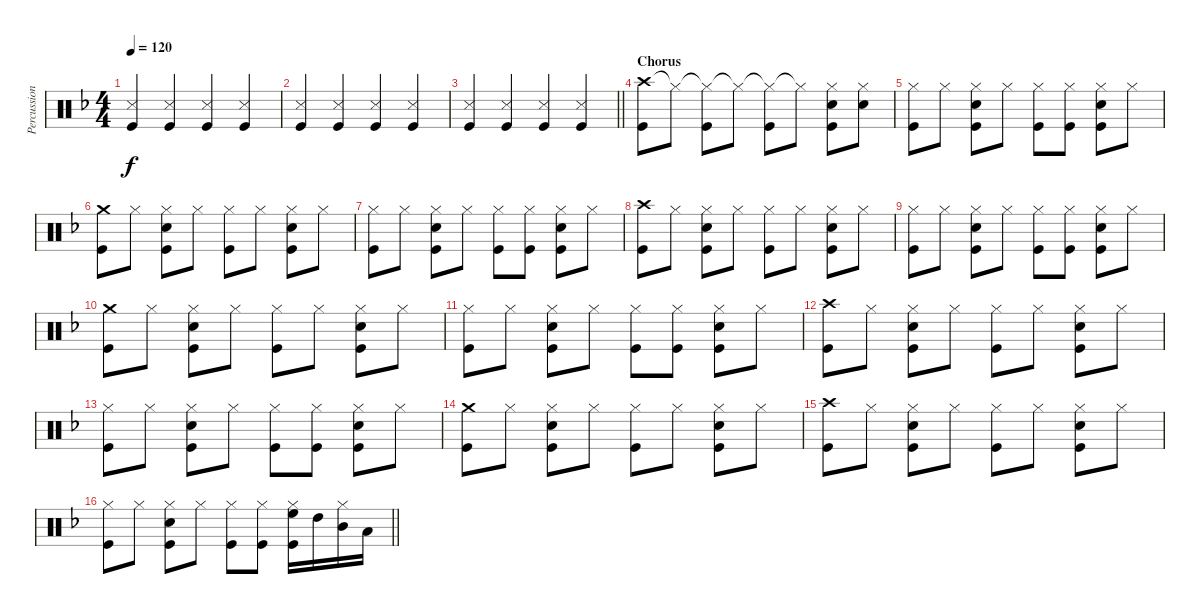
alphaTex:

\track ("Percussion" "Percussion") {instrument percussion}
\staff {score}
\articulation defaults
\ts (4 4)
\tempo 120
\clef neutral
\ks f
("Kick (hit)" "Snare (side stick) 3").4{dy f} ("Kick (hit)" "Snare (side stick) 3").4 ("Kick (hit)" "Snare (side stick) 3").4 ("Kick (hit)" "Snare (side stick) 3").4 |
("Kick (hit)" "Snare (side stick) 3").4 ("Kick (hit)" "Snare (side stick) 3").4 ("Kick (hit)" "Snare (side stick) 3").4 ("Kick (hit)" "Snare (side stick) 3").4 |
\barLineRight lightlight
("Kick (hit)" "Snare (side stick) 3").4 ("Kick (hit)" "Snare (side stick) 3").4 ("Kick (hit)" "Snare (side stick) 3").4 ("Kick (hit)" "Snare (side stick) 3").4 |
\section ("" "Chorus")
("Crash high (hit)" "Kick (hit)").8 "Hi-Hat (closed)"{t}.8 ("Hi-Hat (closed)"{t} "Kick (hit)").8 "Hi-Hat (closed)"{t}.8 ("Hi-Hat (closed)"{t} "Kick (hit)").8 "Hi-Hat (closed)"{t}.8 ("Hi-Hat (closed)" "Kick (hit)" "Electric Snare (hit)").8 ("Hi-Hat (closed)" "Electric Snare (hit)").8 |
("Hi-Hat (closed)" "Kick (hit)").8 "Hi-Hat (closed)".8 ("Hi-Hat (closed)" "Kick (hit)" "Electric Snare (hit)").8 "Hi-Hat (closed)".8 ("Hi-Hat (closed)" "Kick (hit)").8 ("Hi-Hat (closed)" "Kick (hit)").8 ("Hi-Hat (closed)" "Kick (hit)" "Electric Snare (hit)").8 "Hi-Hat (closed)".8 |
("Crash medium (hit)" "Kick (hit)").8 "Hi-Hat (closed)".8 ("Hi-Hat (closed)" "Kick (hit)" "Electric Snare (hit)").8 "Hi-Hat (closed)".8 ("Hi-Hat (closed)" "Kick (hit)").8 "Hi-Hat (closed)".8 ("Hi-Hat (closed)" "Kick (hit)" "Electric Snare (hit)").8 "Hi-Hat (closed)".8 |
("Hi-Hat (closed)" "Kick (hit)").8 "Hi-Hat (closed)".8 ("Hi-Hat (closed)" "Kick (hit)" "Electric Snare (hit)").8 "Hi-Hat (closed)".8 ("Hi-Hat (closed)" "Kick (hit)").8 ("Hi-Hat (closed)" "Kick (hit)").8 ("Hi-Hat (closed)" "Kick (hit)" "Electric Snare (hit)").8 "Hi-Hat (closed)".8 |
("Crash high (hit)" "Kick (hit)").8 "Hi-Hat (closed)".8 ("Hi-Hat (closed)" "Kick (hit)" "Electric Snare (hit)").8 "Hi-Hat (closed)".8 ("Hi-Hat (closed)" "Kick (hit)").8 "Hi-Hat (closed)".8 ("Hi-Hat (closed)" "Kick (hit)" "Electric Snare (hit)").8 "Hi-Hat (closed)".8 |
("Hi-Hat (closed)" "Kick (hit)").8 "Hi-Hat (closed)".8 ("Hi-Hat (closed)" "Kick (hit)" "Electric Snare (hit)").8 "Hi-Hat (closed)".8 ("Hi-Hat (closed)" "Kick (hit)").8 ("Hi-Hat (closed)" "Kick (hit)").8 ("Hi-Hat (closed)" "Kick (hit)" "Electric Snare (hit)").8 "Hi-Hat (closed)".8 |
("Crash medium (hit)" "Kick (hit)").8 "Hi-Hat (closed)".8 ("Hi-Hat (closed)" "Kick (hit)" "Electric Snare (hit)").8 "Hi-Hat (closed)".8 ("Hi-Hat (closed)" "Kick (hit)").8 "Hi-Hat (closed)".8 ("Hi-Hat (closed)" "Kick (hit)" "Electric Snare (hit)").8 "Hi-Hat (closed)".8 |
("Hi-Hat (closed)" "Kick (hit)").8 "Hi-Hat (closed)".8 ("Hi-Hat (closed)" "Kick (hit)" "Electric Snare (hit)").8 "Hi-Hat (closed)".8 ("Hi-Hat (closed)" "Kick (hit)").8 ("Hi-Hat (closed)" "Kick (hit)").8 ("Hi-Hat (closed)" "Kick (hit)" "Electric Snare (hit)").8 "Hi-Hat (closed)".8 |
("Crash high (hit)" "Kick (hit)").8 "Hi-Hat (closed)".8 ("Hi-Hat (closed)" "Kick (hit)" "Electric Snare (hit)").8 "Hi-Hat (closed)".8 ("Hi-Hat (closed)" "Kick (hit)").8 "Hi-Hat (closed)".8 ("Hi-Hat (closed)" "Kick (hit)" "Electric Snare (hit)").8 "Hi-Hat (closed)".8 |
("Hi-Hat (closed)" "Kick (hit)").8 "Hi-Hat (closed)".8 ("Hi-Hat (closed)" "Kick (hit)" "Electric Snare (hit)").8 "Hi-Hat (closed)".8 ("Hi-Hat (closed)" "Kick (hit)").8 ("Hi-Hat (closed)" "Kick (hit)").8 ("Hi-Hat (closed)" "Kick (hit)" "Electric Snare (hit)").8 "Hi-Hat (closed)".8 |
("Crash medium (hit)" "Kick (hit)").8 "Hi-Hat (closed)".8 ("Hi-Hat (closed)" "Kick (hit)" "Electric Snare (hit)").8 "Hi-Hat (closed)".8 ("Hi-Hat (closed)" "Kick (hit)").8 "Hi-Hat (closed)".8 ("Hi-Hat (closed)" "Kick (hit)" "Electric Snare (hit)").8 "Hi-Hat (closed)".8 |
("Crash high (hit)" "Kick (hit)").8 "Hi-Hat (closed)".8 ("Hi-Hat (closed)" "Kick (hit)" "Electric Snare (hit)").8 "Hi-Hat (closed)".8 ("Hi-Hat (closed)" "Kick (hit)").8 "Hi-Hat (closed)".8 ("Hi-Hat (closed)" "Kick (hit)" "Electric Snare (hit)").8 "Hi-Hat (closed)".8 |
\barLineRight lightlight
("Hi-Hat (closed)" "Kick (hit)").8 "Hi-Hat (closed)".8 ("Hi-Hat (closed)" "Kick (hit)" "Electric Snare (hit)").8 "Hi-Hat (closed)".8 ("Hi-Hat (closed)" "Kick (hit)").8 ("Hi-Hat (closed)" "Kick (hit)").8 ("Hi-Hat (closed)" "Kick (hit)" "High Floor Tom (hit)").16 "High Tom (hit)".16 ("Hi-Hat (closed)" "Mid Tom (hit)").16 "Low Tom (hit)".16
